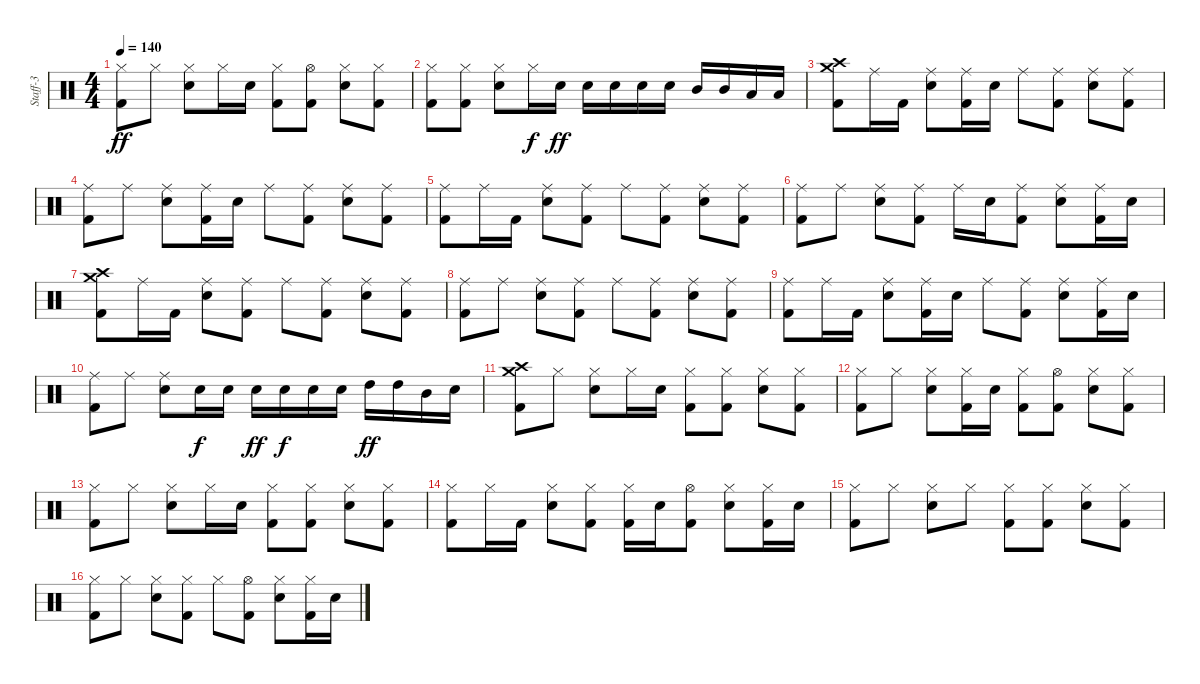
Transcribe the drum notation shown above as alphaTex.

\track ("Staff-3" "Staff-3") {instrument percussion}
\staff {score}
\articulation defaults
\ts (4 4)
\tempo 140
\clef neutral
\ks c
("Kick (hit) 2" "Hi-Hat (closed)").8{dy ff} "Hi-Hat (closed)".8 ("Snare (hit) 2" "Hi-Hat (closed)").8 "Hi-Hat (closed)".16 "Snare (hit) 2".16 ("Kick (hit) 2" "Hi-Hat (closed)").8 ("Kick (hit) 2" "Hi-Hat (open)").8 ("Snare (hit) 2" "Hi-Hat (closed)").8 ("Kick (hit) 2" "Hi-Hat (closed)").8 |
("Kick (hit) 2" "Hi-Hat (closed)").8 ("Kick (hit) 2" "Hi-Hat (closed)").8 ("Snare (hit) 2" "Hi-Hat (closed)").8 "Hi-Hat (closed)".16{dy f} "Snare (hit) 2".16{dy ff} "Snare (hit) 2".16 "Snare (hit) 2".16 "Snare (hit) 2".16 "Snare (hit) 2".16 "Mid Tom (hit)".16 "Mid Tom (hit)".16 "Low Tom (hit)".16 "Low Tom (hit)".16 |
("Kick (hit) 2" "Crash high (hit)" "Crash medium (hit)").8 "Ride (middle)".16 "Kick (hit) 2".16 ("Snare (hit) 2" "Ride (middle)").8 ("Kick (hit) 2" "Ride (middle)").16 "Snare (hit) 2".16 "Ride (middle)".8 ("Kick (hit) 2" "Ride (middle)").8 ("Snare (hit) 2" "Ride (middle)").8 ("Kick (hit) 2" "Ride (middle)").8 |
("Kick (hit) 2" "Ride (middle)").8 "Ride (middle)".8 ("Snare (hit) 2" "Ride (middle)").8 ("Kick (hit) 2" "Ride (middle)").16 "Snare (hit) 2".16 "Ride (middle)".8 ("Kick (hit) 2" "Ride (middle)").8 ("Snare (hit) 2" "Ride (middle)").8 ("Kick (hit) 2" "Ride (middle)").8 |
("Kick (hit) 2" "Ride (middle)").8 "Ride (middle)".16 "Kick (hit) 2".16 ("Snare (hit) 2" "Ride (middle)").8 ("Kick (hit) 2" "Ride (middle)").8 "Ride (middle)".8 ("Kick (hit) 2" "Ride (middle)").8 ("Snare (hit) 2" "Ride (middle)").8 ("Kick (hit) 2" "Ride (middle)").8 |
("Kick (hit) 2" "Ride (middle)").8 "Ride (middle)".8 ("Snare (hit) 2" "Ride (middle)").8 ("Kick (hit) 2" "Ride (middle)").8 "Ride (middle)".16 "Snare (hit) 2".16 ("Kick (hit) 2" "Ride (middle)").8 ("Snare (hit) 2" "Ride (middle)").8 ("Kick (hit) 2" "Ride (middle)").16 "Snare (hit) 2".16 |
("Kick (hit) 2" "Crash high (hit)" "Crash medium (hit)").8 "Ride (middle)".16 "Kick (hit) 2".16 ("Snare (hit) 2" "Ride (middle)").8 ("Kick (hit) 2" "Ride (middle)").8 "Ride (middle)".8 ("Kick (hit) 2" "Ride (middle)").8 ("Snare (hit) 2" "Ride (middle)").8 ("Kick (hit) 2" "Ride (middle)").8 |
("Kick (hit) 2" "Ride (middle)").8 "Ride (middle)".8 ("Snare (hit) 2" "Ride (middle)").8 ("Kick (hit) 2" "Ride (middle)").8 "Ride (middle)".8 ("Kick (hit) 2" "Ride (middle)").8 ("Snare (hit) 2" "Ride (middle)").8 ("Kick (hit) 2" "Ride (middle)").8 |
("Kick (hit) 2" "Ride (middle)").8 "Ride (middle)".16 "Kick (hit) 2".16 ("Snare (hit) 2" "Ride (middle)").8 ("Kick (hit) 2" "Ride (middle)").16 "Snare (hit) 2".16 "Ride (middle)".8 ("Kick (hit) 2" "Ride (middle)").8 ("Snare (hit) 2" "Ride (middle)").8 ("Kick (hit) 2" "Ride (middle)").16 "Snare (hit) 2".16 |
("Kick (hit) 2" "Ride (middle)").8 "Ride (middle)".8 ("Snare (hit) 2" "Ride (middle)").8 "Snare (hit) 2".16{dy f} "Snare (hit) 2".16 "Snare (hit) 2".16{dy ff} "Snare (hit) 2".16{dy f} "Snare (hit) 2".16 "Snare (hit) 2".16 "High Tom (hit)".16{dy ff} "High Tom (hit)".16 "Mid Tom (hit)".16 "Snare (hit) 2".16 |
("Kick (hit) 2" "Crash high (hit)" "Crash medium (hit)").8 "Hi-Hat (closed)".8 ("Snare (hit) 2" "Hi-Hat (closed)").8 "Hi-Hat (closed)".16 "Snare (hit) 2".16 ("Kick (hit) 2" "Hi-Hat (closed)").8 ("Kick (hit) 2" "Hi-Hat (closed)").8 ("Snare (hit) 2" "Hi-Hat (closed)").8 ("Kick (hit) 2" "Hi-Hat (closed)").8 |
("Kick (hit) 2" "Hi-Hat (closed)").8 "Hi-Hat (closed)".8 ("Snare (hit) 2" "Hi-Hat (closed)").8 ("Kick (hit) 2" "Hi-Hat (closed)").16 "Snare (hit) 2".16 ("Kick (hit) 2" "Hi-Hat (closed)").8 ("Kick (hit) 2" "Hi-Hat (open)").8 ("Snare (hit) 2" "Hi-Hat (closed)").8 ("Kick (hit) 2" "Hi-Hat (closed)").8 |
("Kick (hit) 2" "Hi-Hat (closed)").8 "Hi-Hat (closed)".8 ("Snare (hit) 2" "Hi-Hat (closed)").8 "Hi-Hat (closed)".16 "Snare (hit) 2".16 ("Kick (hit) 2" "Hi-Hat (closed)").8 ("Kick (hit) 2" "Hi-Hat (closed)").8 ("Snare (hit) 2" "Hi-Hat (closed)").8 ("Kick (hit) 2" "Hi-Hat (closed)").8 |
("Kick (hit) 2" "Hi-Hat (closed)").8 "Hi-Hat (closed)".16 "Kick (hit) 2".16 ("Snare (hit) 2" "Hi-Hat (closed)").8 ("Kick (hit) 2" "Hi-Hat (closed)").8 ("Kick (hit) 2" "Hi-Hat (closed)").16 "Snare (hit) 2".16 ("Kick (hit) 2" "Hi-Hat (open)").8 ("Snare (hit) 2" "Hi-Hat (closed)").8 ("Kick (hit) 2" "Hi-Hat (closed)").16 "Snare (hit) 2".16 |
("Kick (hit) 2" "Hi-Hat (closed)").8 "Hi-Hat (closed)".8 ("Snare (hit) 2" "Hi-Hat (closed)").8 "Hi-Hat (closed)".8 ("Kick (hit) 2" "Hi-Hat (closed)").8 ("Kick (hit) 2" "Hi-Hat (closed)").8 ("Snare (hit) 2" "Hi-Hat (closed)").8 ("Kick (hit) 2" "Hi-Hat (closed)").8 |
("Kick (hit) 2" "Hi-Hat (closed)").8 "Hi-Hat (closed)".8 ("Snare (hit) 2" "Hi-Hat (closed)").8 ("Kick (hit) 2" "Hi-Hat (closed)").8 "Hi-Hat (closed)".8 ("Kick (hit) 2" "Hi-Hat (open)").8 ("Snare (hit) 2" "Hi-Hat (closed)").8 ("Kick (hit) 2" "Hi-Hat (closed)").16 "Snare (hit) 2".16
